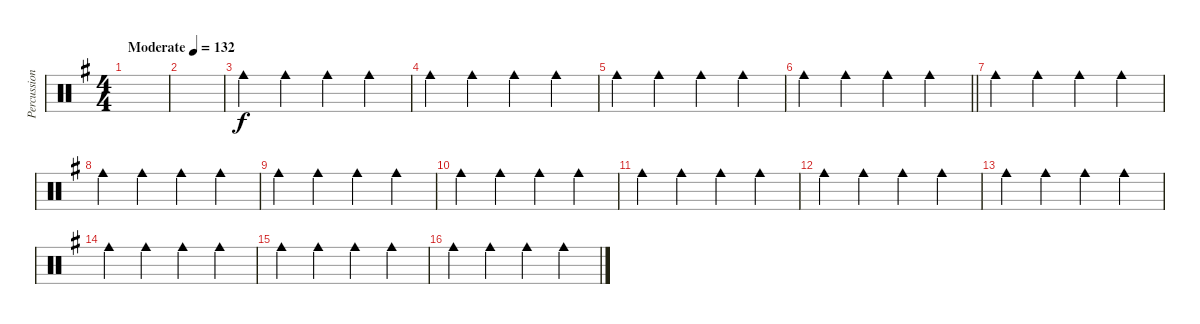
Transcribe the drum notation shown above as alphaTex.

\track ("Percussion" "Percussion") {instrument percussion}
\staff {score}
\articulation defaults
\ts (4 4)
\tempo (132 "Moderate")
\clef neutral
\ks eminor
|
|
"Cowbell medium (hit)".4 "Cowbell medium (hit)".4 "Cowbell medium (hit)".4 "Cowbell medium (hit)".4 |
"Cowbell medium (hit)".4 "Cowbell medium (hit)".4 "Cowbell medium (hit)".4 "Cowbell medium (hit)".4 |
"Cowbell medium (hit)".4 "Cowbell medium (hit)".4 "Cowbell medium (hit)".4 "Cowbell medium (hit)".4 |
\barLineRight lightlight "Cowbell medium (hit)".4 "Cowbell medium (hit)".4 "Cowbell medium (hit)".4 "Cowbell medium (hit)".4
|
"Cowbell medium (hit)".4 "Cowbell medium (hit)".4 "Cowbell medium (hit)".4 "Cowbell medium (hit)".4 |
"Cowbell medium (hit)".4 "Cowbell medium (hit)".4 "Cowbell medium (hit)".4 "Cowbell medium (hit)".4 |
"Cowbell medium (hit)".4 "Cowbell medium (hit)".4 "Cowbell medium (hit)".4 "Cowbell medium (hit)".4 |
"Cowbell medium (hit)".4 "Cowbell medium (hit)".4 "Cowbell medium (hit)".4 "Cowbell medium (hit)".4 |
"Cowbell medium (hit)".4 "Cowbell medium (hit)".4 "Cowbell medium (hit)".4 "Cowbell medium (hit)".4 |
"Cowbell medium (hit)".4 "Cowbell medium (hit)".4 "Cowbell medium (hit)".4 "Cowbell medium (hit)".4 |
"Cowbell medium (hit)".4 "Cowbell medium (hit)".4 "Cowbell medium (hit)".4 "Cowbell medium (hit)".4 |
"Cowbell medium (hit)".4 "Cowbell medium (hit)".4 "Cowbell medium (hit)".4 "Cowbell medium (hit)".4 |
"Cowbell medium (hit)".4 "Cowbell medium (hit)".4 "Cowbell medium (hit)".4 "Cowbell medium (hit)".4 |
"Cowbell medium (hit)".4 "Cowbell medium (hit)".4 "Cowbell medium (hit)".4 "Cowbell medium (hit)".4
